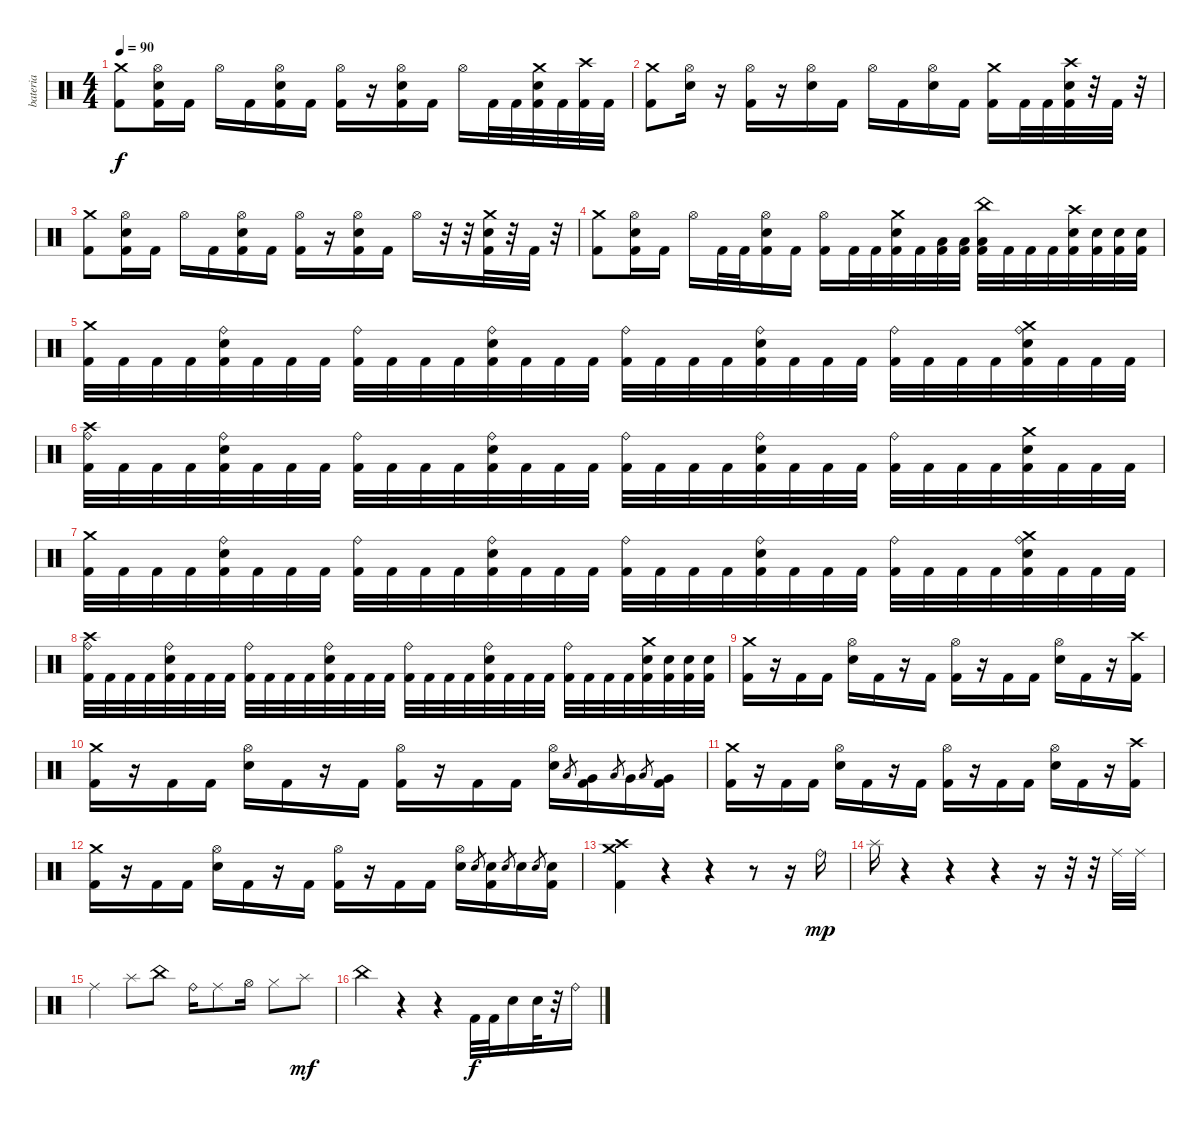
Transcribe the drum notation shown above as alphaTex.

\track ("bateria" "bateria") {instrument percussion}
\staff {score}
\articulation defaults
\ts (4 4)
\tempo 90
\clef neutral
\ks c
("Crash medium (hit)" "Kick (hit) 2").8{dy f} ("Hi-Hat (open)" "Snare (hit) 2" "Kick (hit) 2").16 "Kick (hit) 2".16 "Hi-Hat (open)".16 "Kick (hit) 2".16 ("Hi-Hat (open)" "Snare (hit) 2" "Kick (hit) 2").16 "Kick (hit) 2".16 ("Hi-Hat (open)" "Kick (hit) 2").16 r.16 ("Hi-Hat (open)" "Snare (hit) 2" "Kick (hit) 2").16 "Kick (hit) 2".16 "Hi-Hat (open)".16 "Kick (hit) 2".32 "Kick (hit) 2".32 ("Crash medium (hit)" "Snare (hit) 2" "Kick (hit) 2").32 "Kick (hit) 2".32 ("Crash high (hit)" "Kick (hit) 2").32 "Kick (hit) 2".32 |
("Crash medium (hit)" "Kick (hit) 2").8 ("Hi-Hat (open)" "Snare (hit) 2").16 r.16 ("Hi-Hat (open)" "Kick (hit) 2").16 r.16 ("Hi-Hat (open)" "Snare (hit) 2").16 "Kick (hit) 2".16 "Hi-Hat (open)".16 "Kick (hit) 2".16 ("Hi-Hat (open)" "Snare (hit) 2").16 "Kick (hit) 2".16 ("Crash medium (hit)" "Kick (hit) 2").16 "Kick (hit) 2".32 "Kick (hit) 2".32 ("Crash high (hit)" "Snare (hit) 2" "Kick (hit) 2").32 r.32 "Kick (hit) 2".32 r.32 |
("Crash medium (hit)" "Kick (hit) 2").8 ("Hi-Hat (open)" "Snare (hit) 2" "Kick (hit) 2").16 "Kick (hit) 2".16 "Hi-Hat (open)".16 "Kick (hit) 2".16 ("Hi-Hat (open)" "Snare (hit) 2" "Kick (hit) 2").16 "Kick (hit) 2".16 ("Hi-Hat (open)" "Kick (hit) 2").16 r.16 ("Hi-Hat (open)" "Snare (hit) 2" "Kick (hit) 2").16 "Kick (hit) 2".16 "Hi-Hat (open)".16 r.32 r.32 ("Crash medium (hit)" "Snare (hit) 2" "Kick (hit) 2").32 r.32 "Kick (hit) 2".32 r.32 |
("Crash medium (hit)" "Kick (hit) 2").8 ("Hi-Hat (open)" "Snare (hit) 2" "Kick (hit) 2").16 "Kick (hit) 2".16 "Hi-Hat (open)".16 "Kick (hit) 2".32 "Kick (hit) 2".32 ("Hi-Hat (open)" "Snare (hit) 2" "Kick (hit) 2").16 "Kick (hit) 2".16 ("Hi-Hat (open)" "Kick (hit) 2").16 "Kick (hit) 2".32 "Kick (hit) 2".32 ("Crash medium (hit)" "Snare (hit) 2" "Kick (hit) 2").32 "Kick (hit) 2".32 ("Low Tom (hit)" "Kick (hit) 2").32 ("Low Tom (hit)" "Kick (hit) 2").32 ("China (hit)" "Low Tom (hit)" "Kick (hit) 2").32 "Kick (hit) 2".32 "Kick (hit) 2".32 "Kick (hit) 2".32 ("Crash high (hit)" "Snare (hit) 2" "Kick (hit) 2").32 ("Snare (hit) 2" "Kick (hit) 2").32 ("Snare (hit) 2" "Kick (hit) 2").32 ("Snare (hit) 2" "Kick (hit) 2").32 |
("Crash medium (hit)" "Kick (hit) 2").32 "Kick (hit) 2".32 "Kick (hit) 2".32 "Kick (hit) 2".32 ("Ride (bell)" "Snare (hit) 2" "Kick (hit) 2").32 "Kick (hit) 2".32 "Kick (hit) 2".32 "Kick (hit) 2".32 ("Ride (bell)" "Kick (hit) 2").32 "Kick (hit) 2".32 "Kick (hit) 2".32 "Kick (hit) 2".32 ("Ride (bell)" "Snare (hit) 2" "Kick (hit) 2").32 "Kick (hit) 2".32 "Kick (hit) 2".32 "Kick (hit) 2".32 ("Ride (bell)" "Kick (hit) 2").32 "Kick (hit) 2".32 "Kick (hit) 2".32 "Kick (hit) 2".32 ("Ride (bell)" "Snare (hit) 2" "Kick (hit) 2").32 "Kick (hit) 2".32 "Kick (hit) 2".32 "Kick (hit) 2".32 ("Ride (bell)" "Kick (hit) 2").32 "Kick (hit) 2".32 "Kick (hit) 2".32 "Kick (hit) 2".32 ("Ride (bell)" "Crash medium (hit)" "Snare (hit) 2" "Kick (hit) 2").32 "Kick (hit) 2".32 "Kick (hit) 2".32 "Kick (hit) 2".32 |
("Crash high (hit)" "Ride (bell)" "Kick (hit) 2").32 "Kick (hit) 2".32 "Kick (hit) 2".32 "Kick (hit) 2".32 ("Ride (bell)" "Snare (hit) 2" "Kick (hit) 2").32 "Kick (hit) 2".32 "Kick (hit) 2".32 "Kick (hit) 2".32 ("Ride (bell)" "Kick (hit) 2").32 "Kick (hit) 2".32 "Kick (hit) 2".32 "Kick (hit) 2".32 ("Ride (bell)" "Snare (hit) 2" "Kick (hit) 2").32 "Kick (hit) 2".32 "Kick (hit) 2".32 "Kick (hit) 2".32 ("Ride (bell)" "Kick (hit) 2").32 "Kick (hit) 2".32 "Kick (hit) 2".32 "Kick (hit) 2".32 ("Ride (bell)" "Snare (hit) 2" "Kick (hit) 2").32 "Kick (hit) 2".32 "Kick (hit) 2".32 "Kick (hit) 2".32 ("Ride (bell)" "Kick (hit) 2").32 "Kick (hit) 2".32 "Kick (hit) 2".32 "Kick (hit) 2".32 ("Crash medium (hit)" "Snare (hit) 2" "Kick (hit) 2").32 "Kick (hit) 2".32 "Kick (hit) 2".32 "Kick (hit) 2".32 |
("Crash medium (hit)" "Kick (hit) 2").32 "Kick (hit) 2".32 "Kick (hit) 2".32 "Kick (hit) 2".32 ("Ride (bell)" "Snare (hit) 2" "Kick (hit) 2").32 "Kick (hit) 2".32 "Kick (hit) 2".32 "Kick (hit) 2".32 ("Ride (bell)" "Kick (hit) 2").32 "Kick (hit) 2".32 "Kick (hit) 2".32 "Kick (hit) 2".32 ("Ride (bell)" "Snare (hit) 2" "Kick (hit) 2").32 "Kick (hit) 2".32 "Kick (hit) 2".32 "Kick (hit) 2".32 ("Ride (bell)" "Kick (hit) 2").32 "Kick (hit) 2".32 "Kick (hit) 2".32 "Kick (hit) 2".32 ("Ride (bell)" "Snare (hit) 2" "Kick (hit) 2").32 "Kick (hit) 2".32 "Kick (hit) 2".32 "Kick (hit) 2".32 ("Ride (bell)" "Kick (hit) 2").32 "Kick (hit) 2".32 "Kick (hit) 2".32 "Kick (hit) 2".32 ("Ride (bell)" "Crash medium (hit)" "Snare (hit) 2" "Kick (hit) 2").32 "Kick (hit) 2".32 "Kick (hit) 2".32 "Kick (hit) 2".32 |
("Crash high (hit)" "Ride (bell)" "Kick (hit) 2").32 "Kick (hit) 2".32 "Kick (hit) 2".32 "Kick (hit) 2".32 ("Ride (bell)" "Snare (hit) 2" "Kick (hit) 2").32 "Kick (hit) 2".32 "Kick (hit) 2".32 "Kick (hit) 2".32 ("Ride (bell)" "Kick (hit) 2").32 "Kick (hit) 2".32 "Kick (hit) 2".32 "Kick (hit) 2".32 ("Ride (bell)" "Snare (hit) 2" "Kick (hit) 2").32 "Kick (hit) 2".32 "Kick (hit) 2".32 "Kick (hit) 2".32 ("Ride (bell)" "Kick (hit) 2").32 "Kick (hit) 2".32 "Kick (hit) 2".32 "Kick (hit) 2".32 ("Ride (bell)" "Snare (hit) 2" "Kick (hit) 2").32 "Kick (hit) 2".32 "Kick (hit) 2".32 "Kick (hit) 2".32 ("Ride (bell)" "Kick (hit) 2").32 "Kick (hit) 2".32 "Kick (hit) 2".32 "Kick (hit) 2".32 ("Crash medium (hit)" "Snare (hit) 2" "Kick (hit) 2").32 ("Snare (hit) 2" "Kick (hit) 2").32 ("Snare (hit) 2" "Kick (hit) 2").32 ("Snare (hit) 2" "Kick (hit) 2").32 |
("Crash medium (hit)" "Kick (hit) 2").16 r.16 "Kick (hit) 2".16 "Kick (hit) 2".16 ("Hi-Hat (open)" "Snare (hit) 2").16 "Kick (hit) 2".16 r.16 "Kick (hit) 2".16 ("Hi-Hat (open)" "Kick (hit) 2").16 r.16 "Kick (hit) 2".16 "Kick (hit) 2".16 ("Hi-Hat (open)" "Snare (hit) 2").16 "Kick (hit) 2".16 r.16 ("Crash high (hit)" "Kick (hit) 2").16 |
("Crash medium (hit)" "Kick (hit) 2").16 r.16 "Kick (hit) 2".16 "Kick (hit) 2".16 ("Hi-Hat (open)" "Snare (hit) 2").16 "Kick (hit) 2".16 r.16 "Kick (hit) 2".16 ("Hi-Hat (open)" "Kick (hit) 2").16 r.16 "Kick (hit) 2".16 "Kick (hit) 2".16 ("Hi-Hat (open)" "Snare (hit) 2").16 "Low Floor Tom (hit)".8{gr} ("Very Low Tom (hit)" "Kick (hit) 2").16 "Low Floor Tom (hit)".8{gr} "Very Low Tom (hit)".16 "Low Floor Tom (hit)".8{gr} ("Very Low Tom (hit)" "Kick (hit) 2").16 |
("Crash medium (hit)" "Kick (hit) 2").16 r.16 "Kick (hit) 2".16 "Kick (hit) 2".16 ("Hi-Hat (open)" "Snare (hit) 2").16 "Kick (hit) 2".16 r.16 "Kick (hit) 2".16 ("Hi-Hat (open)" "Kick (hit) 2").16 r.16 "Kick (hit) 2".16 "Kick (hit) 2".16 ("Hi-Hat (open)" "Snare (hit) 2").16 "Kick (hit) 2".16 r.16 ("Crash high (hit)" "Kick (hit) 2").16 |
("Crash medium (hit)" "Kick (hit) 2").16 r.16 "Kick (hit) 2".16 "Kick (hit) 2".16 ("Hi-Hat (open)" "Snare (hit) 2").16 "Kick (hit) 2".16 r.16 "Kick (hit) 2".16 ("Hi-Hat (open)" "Kick (hit) 2").16 r.16 "Kick (hit) 2".16 "Kick (hit) 2".16 ("Hi-Hat (open)" "Snare (hit) 2").16 "Snare (hit) 2".8{gr} ("Snare (hit) 2" "Kick (hit) 2").16 "Snare (hit) 2".8{gr} "Snare (hit) 2".16 "Snare (hit) 2".8{gr} ("Snare (hit) 2" "Kick (hit) 2").16 |
("Crash high (hit)" "Crash medium (hit)" "Kick (hit) 2").4 r.4 r.4 r.8 r.16 "Ride (bell)".16{dy mp} |
"Splash (hit)".16 r.4 r.4 r.4 r.16 r.32 r.32 "Ride (middle)".32 "Ride (middle)".32 |
"Ride (middle)".4 "Splash (hit)".8 "China (hit)".8 "Ride (bell)".16 "Ride (middle)".8 "Hi-Hat (open)".16 "Hi-Hat (closed)".8 "Splash (hit)".8{dy mf} |
"China (hit)".4 r.4 r.4 "Kick (hit) 2".32{dy f} "Kick (hit) 2".32 "Snare (hit) 2".16 "Snare (hit) 2".32 r.32 "Ride (bell)".16
